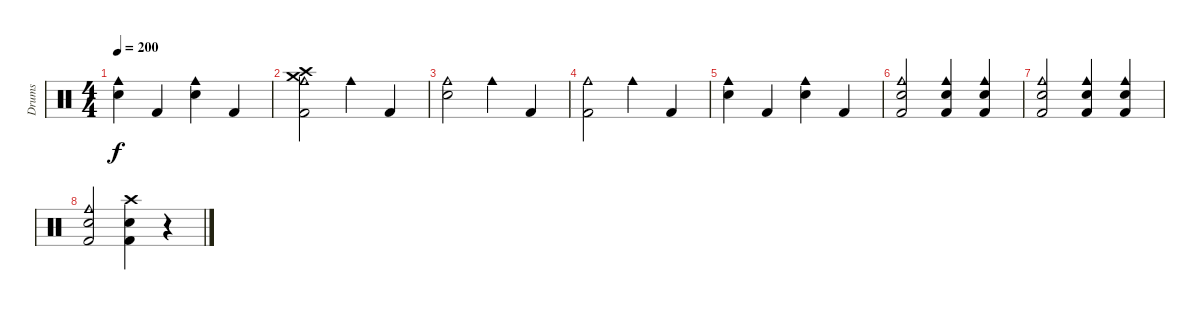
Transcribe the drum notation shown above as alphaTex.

\track ("Drums" "Drums") {instrument percussion}
\staff {score}
\articulation defaults
\ts (4 4)
\tempo 200
\clef neutral
\ks c
("Electric Snare (hit)" "Cowbell medium (hit)").4{dy f} "Kick (hit) 2".4 ("Electric Snare (hit)" "Cowbell medium (hit)").4 "Kick (hit) 2".4 |
("Crash medium (hit)" "Crash high (hit)" "Kick (hit) 2" "Cowbell medium (hit)").2 "Cowbell medium (hit)".4 "Kick (hit) 2".4 |
("Electric Snare (hit)" "Cowbell medium (hit)").2 "Cowbell medium (hit)".4 "Kick (hit) 2".4 |
("Cowbell medium (hit)" "Kick (hit) 2").2 "Cowbell medium (hit)".4 "Kick (hit) 2".4 |
("Electric Snare (hit)" "Cowbell medium (hit)").4 "Kick (hit) 2".4 ("Electric Snare (hit)" "Cowbell medium (hit)").4 "Kick (hit) 2".4 |
("Cowbell medium (hit)" "Kick (hit) 2" "Electric Snare (hit)").2 ("Cowbell medium (hit)" "Kick (hit) 2" "Electric Snare (hit)").4 ("Cowbell medium (hit)" "Kick (hit) 2" "Electric Snare (hit)").4 |
("Cowbell medium (hit)" "Kick (hit) 2" "Electric Snare (hit)").2 ("Cowbell medium (hit)" "Kick (hit) 2" "Electric Snare (hit)").4 ("Cowbell medium (hit)" "Kick (hit) 2" "Electric Snare (hit)").4 |
("Cowbell medium (hit)" "Kick (hit) 2" "Electric Snare (hit)").2 ("Kick (hit) 2" "Crash high (hit)" "Electric Snare (hit)").4 r.4
